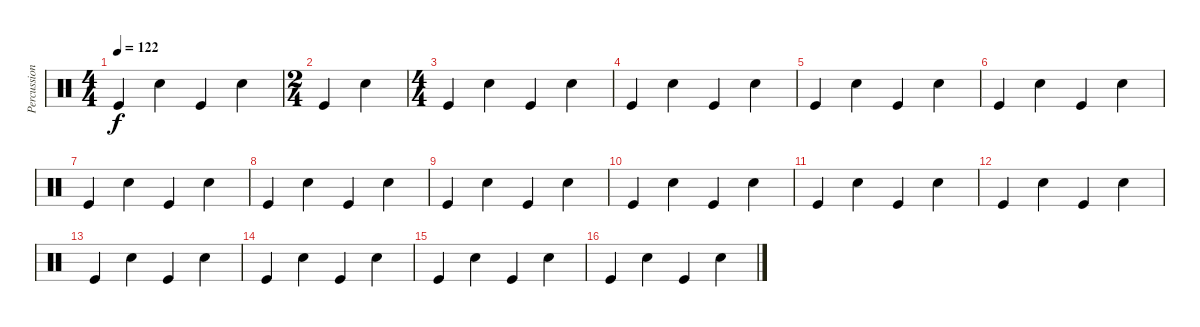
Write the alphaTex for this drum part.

\track ("Percussion" "Percussion") {instrument percussion}
\staff {score}
\articulation defaults
\ts (4 4)
\tempo 122
\clef neutral
\ks c "Kick (hit)".4{dy f} "Snare (hit) 2".4 "Kick (hit)".4 "Snare (hit) 2".4
|
\ts (2 4)
"Kick (hit)".4 "Snare (hit) 2".4 |
\ts (4 4)
"Kick (hit)".4 "Snare (hit) 2".4 "Kick (hit)".4 "Snare (hit) 2".4 |
"Kick (hit)".4 "Snare (hit) 2".4 "Kick (hit)".4 "Snare (hit) 2".4 |
"Kick (hit)".4 "Snare (hit) 2".4 "Kick (hit)".4 "Snare (hit) 2".4 |
"Kick (hit)".4 "Snare (hit) 2".4 "Kick (hit)".4 "Snare (hit) 2".4 |
"Kick (hit)".4 "Snare (hit) 2".4 "Kick (hit)".4 "Snare (hit) 2".4 |
"Kick (hit)".4 "Snare (hit) 2".4 "Kick (hit)".4 "Snare (hit) 2".4 |
"Kick (hit)".4 "Snare (hit) 2".4 "Kick (hit)".4 "Snare (hit) 2".4 |
"Kick (hit)".4 "Snare (hit) 2".4 "Kick (hit)".4 "Snare (hit) 2".4 |
"Kick (hit)".4 "Snare (hit) 2".4 "Kick (hit)".4 "Snare (hit) 2".4 |
"Kick (hit)".4 "Snare (hit) 2".4 "Kick (hit)".4 "Snare (hit) 2".4 |
"Kick (hit)".4 "Snare (hit) 2".4 "Kick (hit)".4 "Snare (hit) 2".4 |
"Kick (hit)".4 "Snare (hit) 2".4 "Kick (hit)".4 "Snare (hit) 2".4 |
"Kick (hit)".4 "Snare (hit) 2".4 "Kick (hit)".4 "Snare (hit) 2".4 |
"Kick (hit)".4 "Snare (hit) 2".4 "Kick (hit)".4 "Snare (hit) 2".4
